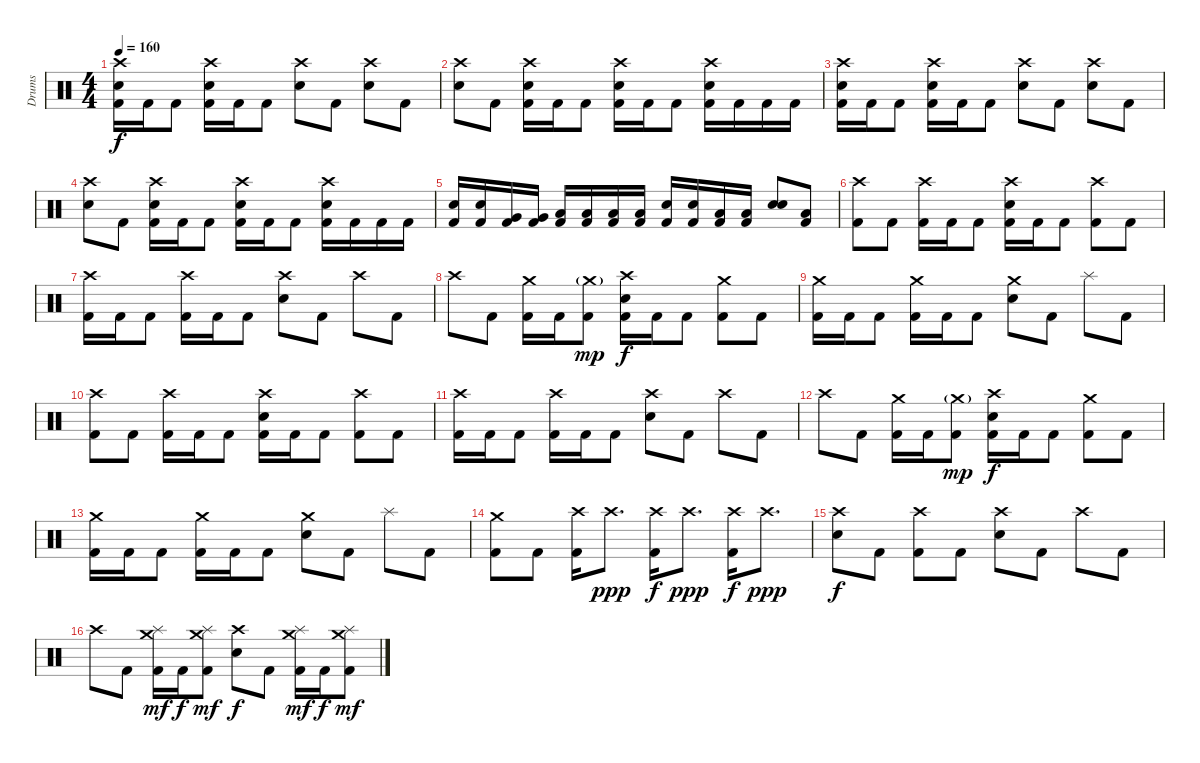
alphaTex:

\track ("Drums" "Drums") {instrument percussion}
\staff {score}
\articulation defaults
\ts (4 4)
\tempo 160
\clef neutral
\ks c
("Crash high (hit)" "Electric Snare (hit)" "Kick (hit) 2").16{dy f} "Kick (hit) 2".16 "Kick (hit) 2".8 ("Crash high (hit)" "Electric Snare (hit)" "Kick (hit) 2").16 "Kick (hit) 2".16 "Kick (hit) 2".8 ("Crash high (hit)" "Electric Snare (hit)").8 "Kick (hit) 2".8 ("Crash high (hit)" "Electric Snare (hit)").8 "Kick (hit) 2".8 |
("Crash high (hit)" "Electric Snare (hit)").8 "Kick (hit) 2".8 ("Crash high (hit)" "Electric Snare (hit)" "Kick (hit) 2").16 "Kick (hit) 2".16 "Kick (hit) 2".8 ("Crash high (hit)" "Electric Snare (hit)" "Kick (hit) 2").16 "Kick (hit) 2".16 "Kick (hit) 2".8 ("Crash high (hit)" "Electric Snare (hit)" "Kick (hit) 2").16 "Kick (hit) 2".16 "Kick (hit) 2".16 "Kick (hit) 2".16 |
("Crash high (hit)" "Electric Snare (hit)" "Kick (hit) 2").16 "Kick (hit) 2".16 "Kick (hit) 2".8 ("Crash high (hit)" "Electric Snare (hit)" "Kick (hit) 2").16 "Kick (hit) 2".16 "Kick (hit) 2".8 ("Crash high (hit)" "Electric Snare (hit)").8 "Kick (hit) 2".8 ("Crash high (hit)" "Electric Snare (hit)").8 "Kick (hit) 2".8 |
("Crash high (hit)" "Electric Snare (hit)").8 "Kick (hit) 2".8 ("Crash high (hit)" "Electric Snare (hit)" "Kick (hit) 2").16 "Kick (hit) 2".16 "Kick (hit) 2".8 ("Crash high (hit)" "Electric Snare (hit)" "Kick (hit) 2").16 "Kick (hit) 2".16 "Kick (hit) 2".8 ("Crash high (hit)" "Electric Snare (hit)" "Kick (hit) 2").16 "Kick (hit) 2".16 "Kick (hit) 2".16 "Kick (hit) 2".16 |
("Electric Snare (hit)" "Kick (hit) 2").16 ("Electric Snare (hit)" "Kick (hit) 2").16 ("Very Low Tom (hit)" "Kick (hit) 2").16 ("Very Low Tom (hit)" "Kick (hit) 2").16 ("Low Tom (hit)" "Kick (hit) 2").16 ("Low Tom (hit)" "Kick (hit) 2").16 ("Low Floor Tom (hit)" "Kick (hit) 2").16 ("Low Floor Tom (hit)" "Kick (hit) 2").16 ("Electric Snare (hit)" "Kick (hit) 2").16 ("Electric Snare (hit)" "Kick (hit) 2").16 ("Low Tom (hit)" "Kick (hit) 2").16 ("Low Tom (hit)" "Kick (hit) 2").16 ("Electric Snare (hit)" "Snare (hit) 2").8 ("Low Floor Tom (hit)" "Kick (hit) 2").8 |
("Crash high (hit)" "Kick (hit) 2").8 "Kick (hit) 2".8 ("Crash high (hit)" "Kick (hit) 2").16 "Kick (hit) 2".16 "Kick (hit) 2".8 ("Crash high (hit)" "Electric Snare (hit)" "Kick (hit) 2").16 "Kick (hit) 2".16 "Kick (hit) 2".8 ("Crash high (hit)" "Kick (hit) 2").8 "Kick (hit) 2".8 |
("Crash high (hit)" "Kick (hit) 2").16 "Kick (hit) 2".16 "Kick (hit) 2".8 ("Crash high (hit)" "Kick (hit) 2").16 "Kick (hit) 2".16 "Kick (hit) 2".8 ("Crash high (hit)" "Electric Snare (hit)").8 "Kick (hit) 2".8 "Crash high (hit)".8 "Kick (hit) 2".8 |
"Crash high (hit)".8 "Kick (hit) 2".8 ("Crash medium (hit)" "Kick (hit) 2").16 "Kick (hit) 2".16 ("Crash medium (hit)"{g} "Kick (hit) 2").8{dy mp} ("Crash high (hit)" "Electric Snare (hit)" "Kick (hit) 2").16{dy f} "Kick (hit) 2".16 "Kick (hit) 2".8 ("Crash medium (hit)" "Kick (hit) 2").8 "Kick (hit) 2".8 |
("Crash medium (hit)" "Kick (hit) 2").16 "Kick (hit) 2".16 "Kick (hit) 2".8 ("Crash medium (hit)" "Kick (hit) 2").16 "Kick (hit) 2".16 "Kick (hit) 2".8 ("Crash medium (hit)" "Electric Snare (hit)").8 "Kick (hit) 2".8 "Splash (hit)".8 "Kick (hit) 2".8 |
("Crash high (hit)" "Kick (hit) 2").8 "Kick (hit) 2".8 ("Crash high (hit)" "Kick (hit) 2").16 "Kick (hit) 2".16 "Kick (hit) 2".8 ("Crash high (hit)" "Electric Snare (hit)" "Kick (hit) 2").16 "Kick (hit) 2".16 "Kick (hit) 2".8 ("Crash high (hit)" "Kick (hit) 2").8 "Kick (hit) 2".8 |
("Crash high (hit)" "Kick (hit) 2").16 "Kick (hit) 2".16 "Kick (hit) 2".8 ("Crash high (hit)" "Kick (hit) 2").16 "Kick (hit) 2".16 "Kick (hit) 2".8 ("Crash high (hit)" "Electric Snare (hit)").8 "Kick (hit) 2".8 "Crash high (hit)".8 "Kick (hit) 2".8 |
"Crash high (hit)".8 "Kick (hit) 2".8 ("Crash medium (hit)" "Kick (hit) 2").16 "Kick (hit) 2".16 ("Crash medium (hit)"{g} "Kick (hit) 2").8{dy mp} ("Crash high (hit)" "Electric Snare (hit)" "Kick (hit) 2").16{dy f} "Kick (hit) 2".16 "Kick (hit) 2".8 ("Crash medium (hit)" "Kick (hit) 2").8 "Kick (hit) 2".8 |
("Crash medium (hit)" "Kick (hit) 2").16 "Kick (hit) 2".16 "Kick (hit) 2".8 ("Crash medium (hit)" "Kick (hit) 2").16 "Kick (hit) 2".16 "Kick (hit) 2".8 ("Crash medium (hit)" "Electric Snare (hit)").8 "Kick (hit) 2".8 "Splash (hit)".8 "Kick (hit) 2".8 |
("Crash medium (hit)" "Kick (hit) 2").8 "Kick (hit) 2".8 ("Crash high (hit)" "Kick (hit) 2").16 "Crash high (hit)".8{d dy ppp} ("Crash high (hit)" "Kick (hit) 2").16{dy f} "Crash high (hit)".8{d dy ppp} ("Crash high (hit)" "Kick (hit) 2").16{dy f} "Crash high (hit)".8{d dy ppp} |
("Crash high (hit)" "Electric Snare (hit)").8{dy f} "Kick (hit) 2".8 ("Crash high (hit)" "Kick (hit) 2").8 "Kick (hit) 2".8 ("Crash high (hit)" "Electric Snare (hit)").8 "Kick (hit) 2".8 "Crash high (hit)".8 "Kick (hit) 2".8 |
"Crash high (hit)".8 "Kick (hit) 2".8 ("Splash (hit)" "Crash medium (hit)" "Kick (hit) 2").16{dy mf} "Kick (hit) 2".16{dy f} ("Splash (hit)" "Crash medium (hit)" "Kick (hit) 2").8{dy mf} ("Crash high (hit)" "Electric Snare (hit)").8{dy f} "Kick (hit) 2".8 ("Splash (hit)" "Crash medium (hit)" "Kick (hit) 2").16{dy mf} "Kick (hit) 2".16{dy f} ("Splash (hit)" "Crash medium (hit)" "Kick (hit) 2").8{dy mf}
